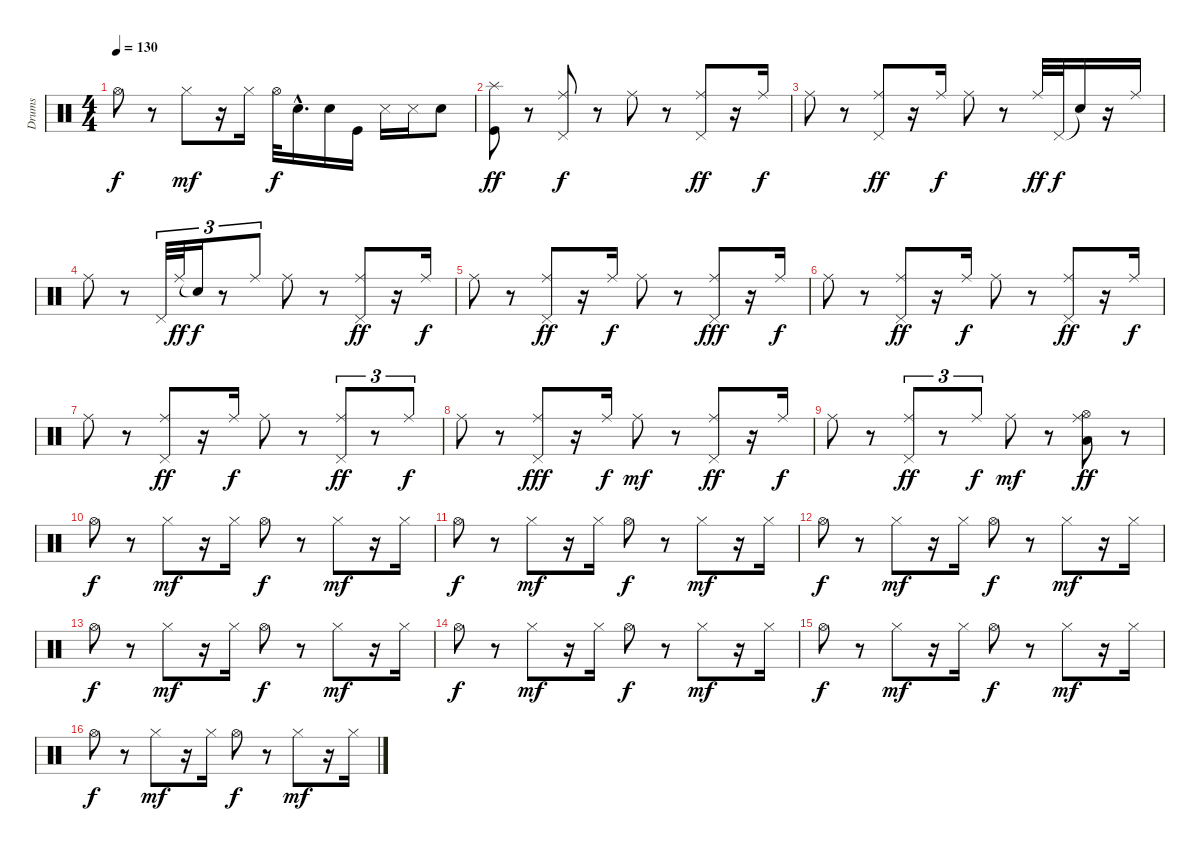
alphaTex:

\track ("Drums" "Drums") {instrument percussion}
\staff {score}
\articulation defaults
\ts (4 4)
\tempo 130
\clef neutral
\ks c "Hi-Hat (open)".8{dy f}
r.8 "Hi-Hat (closed)".8{dy mf} r.16 "Hi-Hat (closed)".16 "Hi-Hat (open)".32{dy f} "Snare (hit) 2"{hac}.16{d} "Snare (hit) 2".16 "Kick (hit)".16 "Snare (side stick) 3".16 "Snare (side stick) 3".16 "Snare (hit) 2".8 |
("Splash (hit)" "Kick (hit)").8{dy ff} r.8 ("Ride (middle)" "Pedal Hi-Hat (hit)").8{dy f} r.8 "Ride (middle)".8 r.8 ("Ride (middle)" "Pedal Hi-Hat (hit)").8{dy ff} r.16 "Ride (middle)".16{dy f} |
"Ride (middle)".8 r.8 ("Ride (middle)" "Pedal Hi-Hat (hit)").8{dy ff} r.16 "Ride (middle)".16{dy f} "Ride (middle)".8 r.8 "Ride (middle)".32{dy ff} "Pedal Hi-Hat (hit)".32{dy f} "Snare (hit)"{t}.16 r.16 "Ride (middle)".16 |
"Ride (middle)".8 r.8 "Pedal Hi-Hat (hit)".32{tu (3 2)} "Ride (middle)".32{tu (3 2) dy ff} "Snare (hit)"{t}.16{tu (3 2) dy f} r.8{tu (3 2)} "Ride (middle)".8{tu (3 2)} "Ride (middle)".8 r.8 ("Ride (middle)" "Pedal Hi-Hat (hit)").8{dy ff} r.16 "Ride (middle)".16{dy f} |
"Ride (middle)".8 r.8 ("Ride (middle)" "Pedal Hi-Hat (hit)").8{dy ff} r.16 "Ride (middle)".16{dy f} "Ride (middle)".8 r.8 ("Ride (middle)" "Pedal Hi-Hat (hit)").8{dy fff} r.16 "Ride (middle)".16{dy f} |
"Ride (middle)".8 r.8 ("Ride (middle)" "Pedal Hi-Hat (hit)").8{dy ff} r.16 "Ride (middle)".16{dy f} "Ride (middle)".8 r.8 ("Ride (middle)" "Pedal Hi-Hat (hit)").8{dy ff} r.16 "Ride (middle)".16{dy f} |
"Ride (middle)".8 r.8 ("Ride (middle)" "Pedal Hi-Hat (hit)").8{dy ff} r.16 "Ride (middle)".16{dy f} "Ride (middle)".8 r.8 ("Ride (middle)" "Pedal Hi-Hat (hit)").8{tu (3 2) dy ff} r.8{tu (3 2)} "Ride (middle)".8{tu (3 2) dy f} |
"Ride (middle)".8 r.8 ("Ride (middle)" "Pedal Hi-Hat (hit)").8{dy fff} r.16 "Ride (middle)".16{dy f} "Ride (middle)".8{dy mf} r.8 ("Ride (middle)" "Pedal Hi-Hat (hit)").8{dy ff} r.16 "Ride (middle)".16{dy f} |
"Ride (middle)".8 r.8 ("Ride (middle)" "Pedal Hi-Hat (hit)").8{tu (3 2) dy ff} r.8{tu (3 2)} "Ride (middle)".8{tu (3 2) dy f} "Ride (middle)".8{dy mf} r.8 ("Ride (middle)" "Hi-Hat (open)" "Low Floor Tom (hit)").8{dy ff} r.8 |
"Hi-Hat (open)".8{dy f} r.8 "Hi-Hat (closed)".8{dy mf} r.16 "Hi-Hat (closed)".16 "Hi-Hat (open)".8{dy f} r.8 "Hi-Hat (closed)".8{dy mf} r.16 "Hi-Hat (closed)".16 |
"Hi-Hat (open)".8{dy f} r.8 "Hi-Hat (closed)".8{dy mf} r.16 "Hi-Hat (closed)".16 "Hi-Hat (open)".8{dy f} r.8 "Hi-Hat (closed)".8{dy mf} r.16 "Hi-Hat (closed)".16 |
"Hi-Hat (open)".8{dy f} r.8 "Hi-Hat (closed)".8{dy mf} r.16 "Hi-Hat (closed)".16 "Hi-Hat (open)".8{dy f} r.8 "Hi-Hat (closed)".8{dy mf} r.16 "Hi-Hat (closed)".16 |
"Hi-Hat (open)".8{dy f} r.8 "Hi-Hat (closed)".8{dy mf} r.16 "Hi-Hat (closed)".16 "Hi-Hat (open)".8{dy f} r.8 "Hi-Hat (closed)".8{dy mf} r.16 "Hi-Hat (closed)".16 |
"Hi-Hat (open)".8{dy f} r.8 "Hi-Hat (closed)".8{dy mf} r.16 "Hi-Hat (closed)".16 "Hi-Hat (open)".8{dy f} r.8 "Hi-Hat (closed)".8{dy mf} r.16 "Hi-Hat (closed)".16 |
"Hi-Hat (open)".8{dy f} r.8 "Hi-Hat (closed)".8{dy mf} r.16 "Hi-Hat (closed)".16 "Hi-Hat (open)".8{dy f} r.8 "Hi-Hat (closed)".8{dy mf} r.16 "Hi-Hat (closed)".16 |
"Hi-Hat (open)".8{dy f} r.8 "Hi-Hat (closed)".8{dy mf} r.16 "Hi-Hat (closed)".16 "Hi-Hat (open)".8{dy f} r.8 "Hi-Hat (closed)".8{dy mf} r.16 "Hi-Hat (closed)".16
